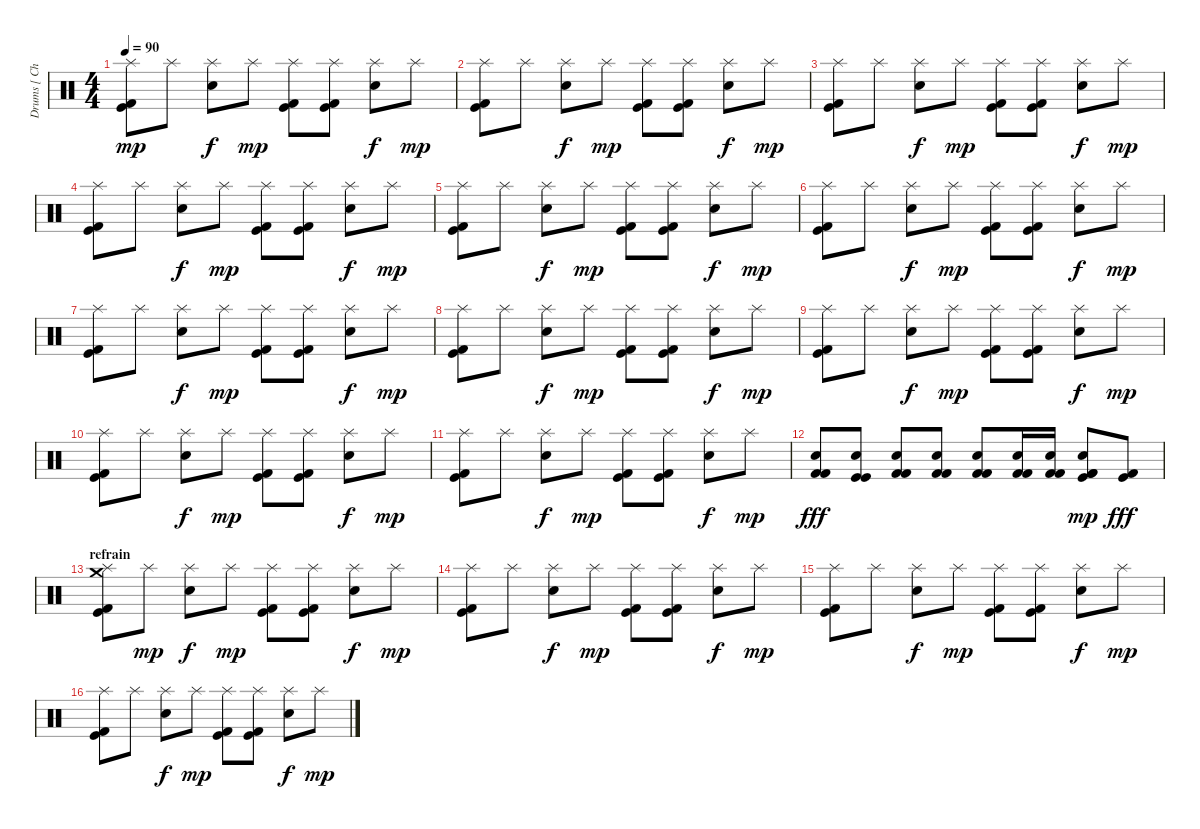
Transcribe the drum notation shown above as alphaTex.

\track ("Drums [ Christoph Schneider ]" "Drums [ Ch") {instrument percussion}
\staff {score}
\articulation defaults
\ts (4 4)
\tempo 90
\clef neutral
\ks c
("Splash (hit)" "Kick (hit)" "Kick (hit) 2").8{dy mp} "Splash (hit)".8 ("Splash (hit)" "Snare (hit) 2").8{dy f} "Splash (hit)".8{dy mp} ("Splash (hit)" "Kick (hit)" "Kick (hit) 2").8 ("Splash (hit)" "Kick (hit)" "Kick (hit) 2").8 ("Splash (hit)" "Snare (hit) 2").8{dy f} "Splash (hit)".8{dy mp} |
("Splash (hit)" "Kick (hit)" "Kick (hit) 2").8 "Splash (hit)".8 ("Splash (hit)" "Snare (hit) 2").8{dy f} "Splash (hit)".8{dy mp} ("Splash (hit)" "Kick (hit)" "Kick (hit) 2").8 ("Splash (hit)" "Kick (hit)" "Kick (hit) 2").8 ("Splash (hit)" "Snare (hit) 2").8{dy f} "Splash (hit)".8{dy mp} |
("Splash (hit)" "Kick (hit)" "Kick (hit) 2").8 "Splash (hit)".8 ("Splash (hit)" "Snare (hit) 2").8{dy f} "Splash (hit)".8{dy mp} ("Splash (hit)" "Kick (hit)" "Kick (hit) 2").8 ("Splash (hit)" "Kick (hit)" "Kick (hit) 2").8 ("Splash (hit)" "Snare (hit) 2").8{dy f} "Splash (hit)".8{dy mp} |
("Splash (hit)" "Kick (hit)" "Kick (hit) 2").8 "Splash (hit)".8 ("Splash (hit)" "Snare (hit) 2").8{dy f} "Splash (hit)".8{dy mp} ("Splash (hit)" "Kick (hit)" "Kick (hit) 2").8 ("Splash (hit)" "Kick (hit)" "Kick (hit) 2").8 ("Splash (hit)" "Snare (hit) 2").8{dy f} "Splash (hit)".8{dy mp} |
("Splash (hit)" "Kick (hit)" "Kick (hit) 2").8 "Splash (hit)".8 ("Splash (hit)" "Snare (hit) 2").8{dy f} "Splash (hit)".8{dy mp} ("Splash (hit)" "Kick (hit)" "Kick (hit) 2").8 ("Splash (hit)" "Kick (hit)" "Kick (hit) 2").8 ("Splash (hit)" "Snare (hit) 2").8{dy f} "Splash (hit)".8{dy mp} |
("Splash (hit)" "Kick (hit)" "Kick (hit) 2").8 "Splash (hit)".8 ("Splash (hit)" "Snare (hit) 2").8{dy f} "Splash (hit)".8{dy mp} ("Splash (hit)" "Kick (hit)" "Kick (hit) 2").8 ("Splash (hit)" "Kick (hit)" "Kick (hit) 2").8 ("Splash (hit)" "Snare (hit) 2").8{dy f} "Splash (hit)".8{dy mp} |
("Splash (hit)" "Kick (hit)" "Kick (hit) 2").8 "Splash (hit)".8 ("Splash (hit)" "Snare (hit) 2").8{dy f} "Splash (hit)".8{dy mp} ("Splash (hit)" "Kick (hit)" "Kick (hit) 2").8 ("Splash (hit)" "Kick (hit)" "Kick (hit) 2").8 ("Splash (hit)" "Snare (hit) 2").8{dy f} "Splash (hit)".8{dy mp} |
("Splash (hit)" "Kick (hit)" "Kick (hit) 2").8 "Splash (hit)".8 ("Splash (hit)" "Snare (hit) 2").8{dy f} "Splash (hit)".8{dy mp} ("Splash (hit)" "Kick (hit)" "Kick (hit) 2").8 ("Splash (hit)" "Kick (hit)" "Kick (hit) 2").8 ("Splash (hit)" "Snare (hit) 2").8{dy f} "Splash (hit)".8{dy mp} |
("Splash (hit)" "Kick (hit)" "Kick (hit) 2").8 "Splash (hit)".8 ("Splash (hit)" "Snare (hit) 2").8{dy f} "Splash (hit)".8{dy mp} ("Splash (hit)" "Kick (hit)" "Kick (hit) 2").8 ("Splash (hit)" "Kick (hit)" "Kick (hit) 2").8 ("Splash (hit)" "Snare (hit) 2").8{dy f} "Splash (hit)".8{dy mp} |
("Splash (hit)" "Kick (hit)" "Kick (hit) 2").8 "Splash (hit)".8 ("Splash (hit)" "Snare (hit) 2").8{dy f} "Splash (hit)".8{dy mp} ("Splash (hit)" "Kick (hit)" "Kick (hit) 2").8 ("Splash (hit)" "Kick (hit)" "Kick (hit) 2").8 ("Splash (hit)" "Snare (hit) 2").8{dy f} "Splash (hit)".8{dy mp} |
("Splash (hit)" "Kick (hit)" "Kick (hit) 2").8 "Splash (hit)".8 ("Splash (hit)" "Snare (hit) 2").8{dy f} "Splash (hit)".8{dy mp} ("Splash (hit)" "Kick (hit)" "Kick (hit) 2").8 ("Splash (hit)" "Kick (hit)" "Kick (hit) 2").8 ("Splash (hit)" "Snare (hit) 2").8{dy f} "Splash (hit)".8{dy mp} |
("Kick (hit) 2" "Kick (hit) 2" "Electric Snare (hit)").8{dy fff} ("Kick (hit)" "Kick (hit)" "Snare (hit) 2").8 ("Kick (hit) 2" "Kick (hit) 2" "Electric Snare (hit)").8 ("Kick (hit) 2" "Kick (hit) 2" "Electric Snare (hit)").8 ("Kick (hit) 2" "Kick (hit) 2" "Electric Snare (hit)").8 ("Kick (hit) 2" "Kick (hit) 2" "Electric Snare (hit)").16 ("Kick (hit) 2" "Kick (hit) 2" "Electric Snare (hit)").16 ("Kick (hit) 2" "Kick (hit) 2" "Electric Snare (hit)" "Kick (hit)"{tr (35 32)}).8{dy mp} ("Kick (hit)" "Kick (hit) 2").8{dy fff} |
\section ("" "refrain")
("Splash (hit)" "Kick (hit)" "Kick (hit) 2" "Crash medium (hit)").8 "Splash (hit)".8{dy mp} ("Splash (hit)" "Snare (hit) 2").8{dy f} "Splash (hit)".8{dy mp} ("Splash (hit)" "Kick (hit)" "Kick (hit) 2").8 ("Splash (hit)" "Kick (hit)" "Kick (hit) 2").8 ("Splash (hit)" "Snare (hit) 2").8{dy f} "Splash (hit)".8{dy mp} |
("Splash (hit)" "Kick (hit)" "Kick (hit) 2").8 "Splash (hit)".8 ("Splash (hit)" "Snare (hit) 2").8{dy f} "Splash (hit)".8{dy mp} ("Splash (hit)" "Kick (hit)" "Kick (hit) 2").8 ("Splash (hit)" "Kick (hit)" "Kick (hit) 2").8 ("Splash (hit)" "Snare (hit) 2").8{dy f} "Splash (hit)".8{dy mp} |
("Splash (hit)" "Kick (hit)" "Kick (hit) 2").8 "Splash (hit)".8 ("Splash (hit)" "Snare (hit) 2").8{dy f} "Splash (hit)".8{dy mp} ("Splash (hit)" "Kick (hit)" "Kick (hit) 2").8 ("Splash (hit)" "Kick (hit)" "Kick (hit) 2").8 ("Splash (hit)" "Snare (hit) 2").8{dy f} "Splash (hit)".8{dy mp} |
("Splash (hit)" "Kick (hit)" "Kick (hit) 2").8 "Splash (hit)".8 ("Splash (hit)" "Snare (hit) 2").8{dy f} "Splash (hit)".8{dy mp} ("Splash (hit)" "Kick (hit)" "Kick (hit) 2").8 ("Splash (hit)" "Kick (hit)" "Kick (hit) 2").8 ("Splash (hit)" "Snare (hit) 2").8{dy f} "Splash (hit)".8{dy mp}
